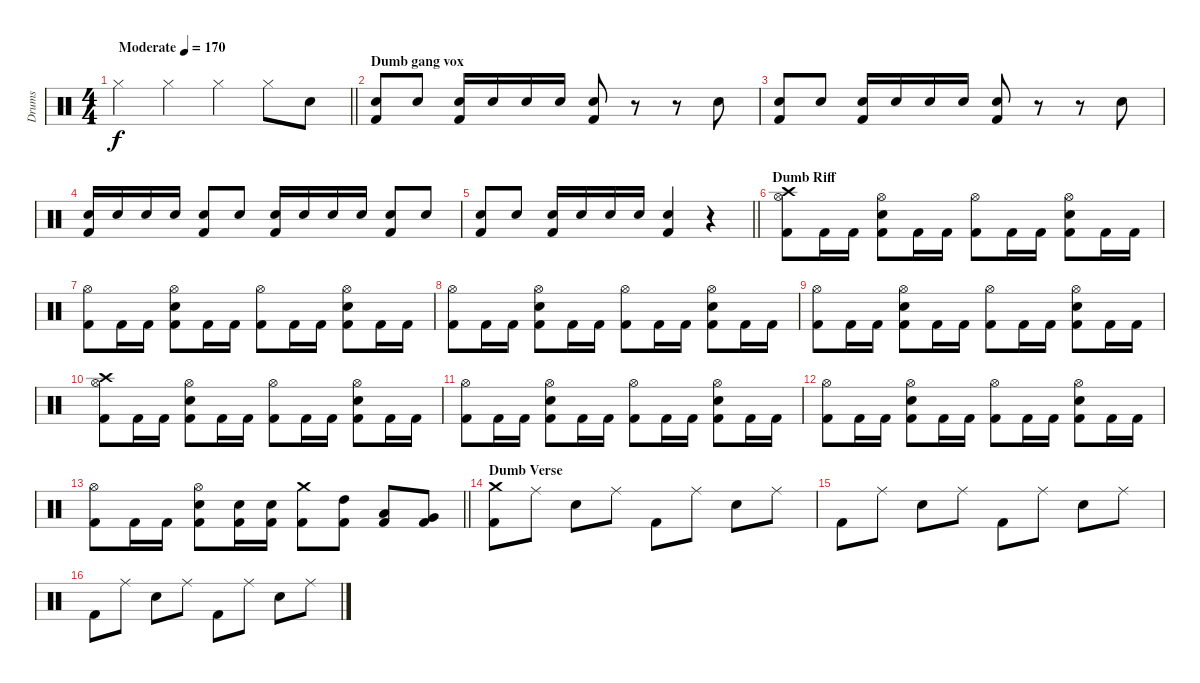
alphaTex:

\track ("Drums" "Drums") {instrument percussion}
\staff {score}
\articulation defaults
\ts (4 4)
\tempo (170 "Moderate")
\clef neutral
\barLineRight lightlight
\ks c "Hi-Hat (closed)".4{dy f} "Hi-Hat (closed)".4 "Hi-Hat (closed)".4 "Hi-Hat (closed)".8 "Snare (hit) 2".8
|
\section ("" "Dumb gang vox")
("Snare (hit) 2" "Kick (hit) 2").8 "Snare (hit) 2".8 ("Snare (hit) 2" "Kick (hit) 2").16 "Snare (hit) 2".16 "Snare (hit) 2".16 "Snare (hit) 2".16 ("Snare (hit) 2" "Kick (hit) 2").8 r.8 r.8 "Snare (hit) 2".8 |
("Snare (hit) 2" "Kick (hit) 2").8 "Snare (hit) 2".8 ("Snare (hit) 2" "Kick (hit) 2").16 "Snare (hit) 2".16 "Snare (hit) 2".16 "Snare (hit) 2".16 ("Snare (hit) 2" "Kick (hit) 2").8 r.8 r.8 "Snare (hit) 2".8 |
("Snare (hit) 2" "Kick (hit) 2").16 "Snare (hit) 2".16 "Snare (hit) 2".16 "Snare (hit) 2".16 ("Snare (hit) 2" "Kick (hit) 2").8 "Snare (hit) 2".8 ("Snare (hit) 2" "Kick (hit) 2").16 "Snare (hit) 2".16 "Snare (hit) 2".16 "Snare (hit) 2".16 ("Snare (hit) 2" "Kick (hit) 2").8 "Snare (hit) 2".8 |
\barLineRight lightlight
("Snare (hit) 2" "Kick (hit) 2").8 "Snare (hit) 2".8 ("Snare (hit) 2" "Kick (hit) 2").16 "Snare (hit) 2".16 "Snare (hit) 2".16 "Snare (hit) 2".16 ("Snare (hit) 2" "Kick (hit) 2").4 r.4 |
\section ("" "Dumb Riff")
("Crash high (hit)" "Hi-Hat (open)" "Kick (hit) 2").8 "Kick (hit) 2".16 "Kick (hit) 2".16 ("Hi-Hat (open)" "Snare (hit) 2" "Kick (hit) 2").8 "Kick (hit) 2".16 "Kick (hit) 2".16 ("Hi-Hat (open)" "Kick (hit) 2").8 "Kick (hit) 2".16 "Kick (hit) 2".16 ("Hi-Hat (open)" "Snare (hit) 2" "Kick (hit) 2").8 "Kick (hit) 2".16 "Kick (hit) 2".16 |
("Hi-Hat (open)" "Kick (hit) 2").8 "Kick (hit) 2".16 "Kick (hit) 2".16 ("Hi-Hat (open)" "Snare (hit) 2" "Kick (hit) 2").8 "Kick (hit) 2".16 "Kick (hit) 2".16 ("Hi-Hat (open)" "Kick (hit) 2").8 "Kick (hit) 2".16 "Kick (hit) 2".16 ("Hi-Hat (open)" "Snare (hit) 2" "Kick (hit) 2").8 "Kick (hit) 2".16 "Kick (hit) 2".16 |
("Hi-Hat (open)" "Kick (hit) 2").8 "Kick (hit) 2".16 "Kick (hit) 2".16 ("Hi-Hat (open)" "Snare (hit) 2" "Kick (hit) 2").8 "Kick (hit) 2".16 "Kick (hit) 2".16 ("Hi-Hat (open)" "Kick (hit) 2").8 "Kick (hit) 2".16 "Kick (hit) 2".16 ("Hi-Hat (open)" "Snare (hit) 2" "Kick (hit) 2").8 "Kick (hit) 2".16 "Kick (hit) 2".16 |
("Hi-Hat (open)" "Kick (hit) 2").8 "Kick (hit) 2".16 "Kick (hit) 2".16 ("Hi-Hat (open)" "Snare (hit) 2" "Kick (hit) 2").8 "Kick (hit) 2".16 "Kick (hit) 2".16 ("Hi-Hat (open)" "Kick (hit) 2").8 "Kick (hit) 2".16 "Kick (hit) 2".16 ("Hi-Hat (open)" "Snare (hit) 2" "Kick (hit) 2").8 "Kick (hit) 2".16 "Kick (hit) 2".16 |
("Crash high (hit)" "Hi-Hat (open)" "Kick (hit) 2").8 "Kick (hit) 2".16 "Kick (hit) 2".16 ("Hi-Hat (open)" "Snare (hit) 2" "Kick (hit) 2").8 "Kick (hit) 2".16 "Kick (hit) 2".16 ("Hi-Hat (open)" "Kick (hit) 2").8 "Kick (hit) 2".16 "Kick (hit) 2".16 ("Hi-Hat (open)" "Snare (hit) 2" "Kick (hit) 2").8 "Kick (hit) 2".16 "Kick (hit) 2".16 |
("Hi-Hat (open)" "Kick (hit) 2").8 "Kick (hit) 2".16 "Kick (hit) 2".16 ("Hi-Hat (open)" "Snare (hit) 2" "Kick (hit) 2").8 "Kick (hit) 2".16 "Kick (hit) 2".16 ("Hi-Hat (open)" "Kick (hit) 2").8 "Kick (hit) 2".16 "Kick (hit) 2".16 ("Hi-Hat (open)" "Snare (hit) 2" "Kick (hit) 2").8 "Kick (hit) 2".16 "Kick (hit) 2".16 |
("Hi-Hat (open)" "Kick (hit) 2").8 "Kick (hit) 2".16 "Kick (hit) 2".16 ("Hi-Hat (open)" "Snare (hit) 2" "Kick (hit) 2").8 "Kick (hit) 2".16 "Kick (hit) 2".16 ("Hi-Hat (open)" "Kick (hit) 2").8 "Kick (hit) 2".16 "Kick (hit) 2".16 ("Hi-Hat (open)" "Snare (hit) 2" "Kick (hit) 2").8 "Kick (hit) 2".16 "Kick (hit) 2".16 |
\barLineRight lightlight
("Hi-Hat (open)" "Kick (hit) 2").8 "Kick (hit) 2".16 "Kick (hit) 2".16 ("Hi-Hat (open)" "Snare (hit) 2" "Kick (hit) 2").8 ("Snare (hit) 2" "Kick (hit) 2").16 ("Snare (hit) 2" "Kick (hit) 2").16 ("Crash medium (hit)" "Kick (hit) 2").8 ("High Tom (hit)" "Kick (hit) 2").8 ("Low Tom (hit)" "Kick (hit) 2").8 ("Very Low Tom (hit)" "Kick (hit) 2").8 |
\section ("" "Dumb Verse")
("Crash medium (hit)" "Kick (hit) 2").8 "Ride (middle)".8 "Snare (hit) 2".8 "Ride (middle)".8 "Kick (hit) 2".8 "Ride (middle)".8 "Snare (hit) 2".8 "Ride (middle)".8 |
"Kick (hit) 2".8 "Ride (middle)".8 "Snare (hit) 2".8 "Ride (middle)".8 "Kick (hit) 2".8 "Ride (middle)".8 "Snare (hit) 2".8 "Ride (middle)".8 |
"Kick (hit) 2".8 "Ride (middle)".8 "Snare (hit) 2".8 "Ride (middle)".8 "Kick (hit) 2".8 "Ride (middle)".8 "Snare (hit) 2".8 "Ride (middle)".8
